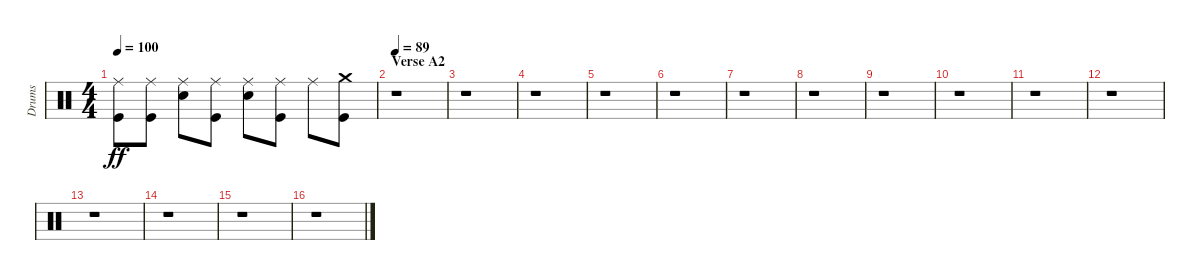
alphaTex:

\track ("Drums" "Drums") {instrument percussion}
\staff {score}
\articulation defaults
\ts (4 4)
\tempo 100
\clef neutral
\ks c
("Ride (middle)" "Kick (hit)").8{dy ff} ("Ride (middle)" "Kick (hit)").8 ("Ride (middle)" "Electric Snare (hit)").8 ("Ride (middle)" "Kick (hit)").8 ("Ride (middle)" "Electric Snare (hit)").8 ("Ride (middle)" "Kick (hit)").8 "Ride (middle)".8 ("Crash medium (hit)" "Kick (hit)").8 |
\section ("" "Verse A2")
\tempo 89
r.1 |
r.1 |
r.1 |
r.1 |
r.1 |
r.1 |
r.1 |
r.1 |
r.1 |
r.1 |
r.1 |
r.1 |
r.1 |
r.1 |
r.1
